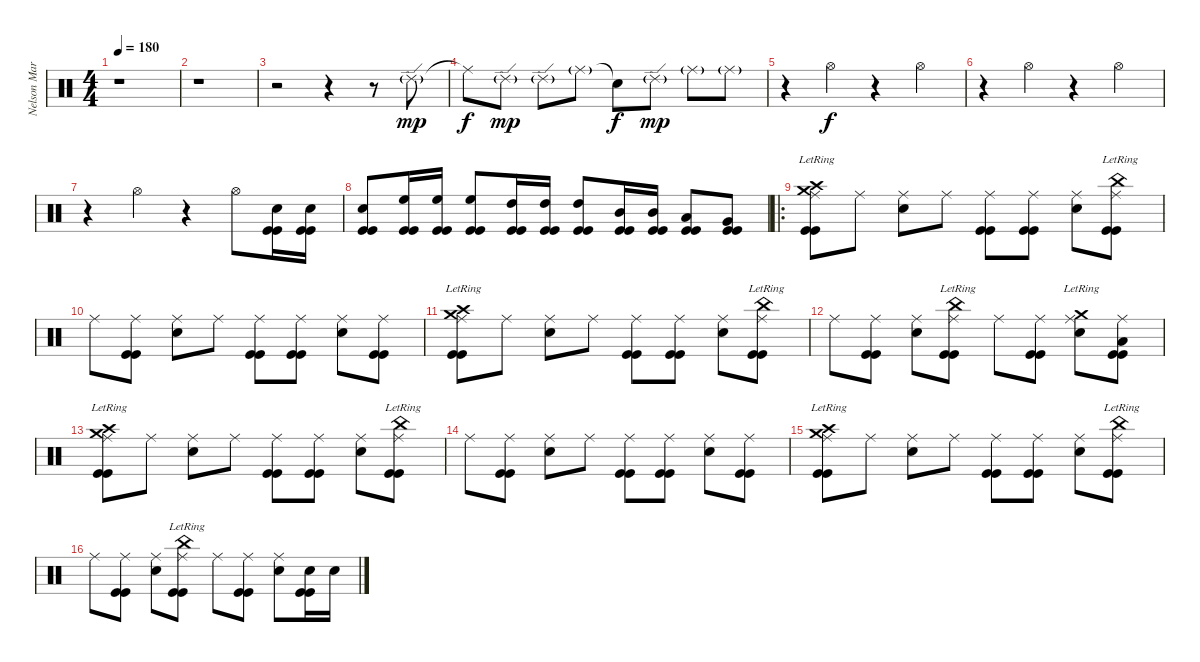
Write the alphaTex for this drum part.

\track ("Nelson Maria" "Nelson Mar") {instrument percussion}
\staff {score}
\articulation defaults
\ts (4 4)
\tempo 180
\clef neutral
\ks c
r.1{dy mp} |
r.1 |
r.2 r.4 r.8 "Ride (edge) 2"{g}.8 |
"Ride (middle)"{t}.8{dy f} "Ride (edge) 2"{g}.8{dy mp} "Ride (edge) 2"{g}.8 "Ride (middle)"{g}.8 "Snare (hit)"{t}.8{dy f} "Ride (edge) 2"{g}.8{dy mp} "Ride (middle)"{g}.8 "Ride (middle)"{g}.8 |
r.4 "Hi-Hat (open)".4{dy f} r.4 "Hi-Hat (open)".4 |
r.4 "Hi-Hat (open)".4 r.4 "Hi-Hat (open)".4 |
r.4 "Hi-Hat (open)".4 r.4 "Hi-Hat (open)".8 ("Snare (hit) 2" "Kick (hit)" "Kick (hit)").16 ("Snare (hit) 2" "Kick (hit)" "Kick (hit)").16 |
("Snare (hit) 2" "Kick (hit)" "Kick (hit)").8 ("High Floor Tom (hit)" "Kick (hit)" "Kick (hit)").16 ("High Floor Tom (hit)" "Kick (hit)" "Kick (hit)").16 ("High Floor Tom (hit)" "Kick (hit)" "Kick (hit)").8 ("High Tom (hit)" "Kick (hit)" "Kick (hit)").16 ("High Tom (hit)" "Kick (hit)" "Kick (hit)").16 ("High Tom (hit)" "Kick (hit)" "Kick (hit)").8 ("Mid Tom (hit)" "Kick (hit)" "Kick (hit)").16 ("Mid Tom (hit)" "Kick (hit)" "Kick (hit)").16 ("Low Tom (hit)" "Kick (hit)" "Kick (hit)").8 ("Very Low Tom (hit)" "Kick (hit)" "Kick (hit)").8 |
\ro
("Crash high (hit)"{lr} "Crash medium (hit)"{lr} "Ride (middle)" "Kick (hit)" "Kick (hit)").8 "Ride (middle)".8 ("Snare (hit) 2" "Ride (middle)").8 "Ride (middle)".8 ("Ride (middle)" "Kick (hit)" "Kick (hit)").8 ("Ride (middle)" "Kick (hit)" "Kick (hit)").8 ("Snare (hit) 2" "Ride (middle)").8 ("China (hit)"{lr} "Ride (middle)" "Kick (hit)" "Kick (hit)").8 |
"Ride (middle)".8 ("Ride (middle)" "Kick (hit)" "Kick (hit)").8 ("Snare (hit) 2" "Ride (middle)").8 "Ride (middle)".8 ("Ride (middle)" "Kick (hit)" "Kick (hit)").8 ("Ride (middle)" "Kick (hit)" "Kick (hit)").8 ("Snare (hit) 2" "Ride (middle)").8 ("Ride (middle)" "Kick (hit)" "Kick (hit)").8 |
("Crash high (hit)"{lr} "Crash medium (hit)"{lr} "Ride (middle)" "Kick (hit)" "Kick (hit)").8 "Ride (middle)".8 ("Snare (hit) 2" "Ride (middle)").8 "Ride (middle)".8 ("Ride (middle)" "Kick (hit)" "Kick (hit)").8 ("Ride (middle)" "Kick (hit)" "Kick (hit)").8 ("Snare (hit) 2" "Ride (middle)").8 ("China (hit)"{lr} "Ride (middle)" "Kick (hit)" "Kick (hit)").8 |
"Ride (middle)".8 ("Ride (middle)" "Kick (hit)" "Kick (hit)").8 ("Snare (hit) 2" "Ride (middle)").8 ("China (hit)"{lr} "Ride (middle)" "Kick (hit)" "Kick (hit)").8 "Ride (middle)".8 ("Ride (middle)" "Kick (hit)" "Kick (hit)").8 ("Crash medium (hit)"{lr} "Snare (hit) 2" "Ride (middle)").8 ("Low Tom (hit)" "Ride (middle)" "Kick (hit)" "Kick (hit)").8 |
("Crash high (hit)"{lr} "Crash medium (hit)"{lr} "Ride (middle)" "Kick (hit)" "Kick (hit)").8 "Ride (middle)".8 ("Snare (hit) 2" "Ride (middle)").8 "Ride (middle)".8 ("Ride (middle)" "Kick (hit)" "Kick (hit)").8 ("Ride (middle)" "Kick (hit)" "Kick (hit)").8 ("Snare (hit) 2" "Ride (middle)").8 ("China (hit)"{lr} "Ride (middle)" "Kick (hit)" "Kick (hit)").8 |
"Ride (middle)".8 ("Ride (middle)" "Kick (hit)" "Kick (hit)").8 ("Snare (hit) 2" "Ride (middle)").8 "Ride (middle)".8 ("Ride (middle)" "Kick (hit)" "Kick (hit)").8 ("Ride (middle)" "Kick (hit)" "Kick (hit)").8 ("Snare (hit) 2" "Ride (middle)").8 ("Ride (middle)" "Kick (hit)" "Kick (hit)").8 |
("Crash high (hit)"{lr} "Crash medium (hit)"{lr} "Ride (middle)" "Kick (hit)" "Kick (hit)").8 "Ride (middle)".8 ("Snare (hit) 2" "Ride (middle)").8 "Ride (middle)".8 ("Ride (middle)" "Kick (hit)" "Kick (hit)").8 ("Ride (middle)" "Kick (hit)" "Kick (hit)").8 ("Snare (hit) 2" "Ride (middle)").8 ("China (hit)"{lr} "Ride (middle)" "Kick (hit)" "Kick (hit)").8 |
"Ride (middle)".8 ("Ride (middle)" "Kick (hit)" "Kick (hit)").8 ("Snare (hit) 2" "Ride (middle)").8 ("China (hit)"{lr} "Ride (middle)" "Kick (hit)" "Kick (hit)").8 "Ride (middle)".8 ("Ride (middle)" "Kick (hit)" "Kick (hit)").8 ("Snare (hit) 2" "Ride (middle)").8 ("Snare (hit) 2" "Kick (hit)" "Kick (hit)").16 "Snare (hit) 2".16
